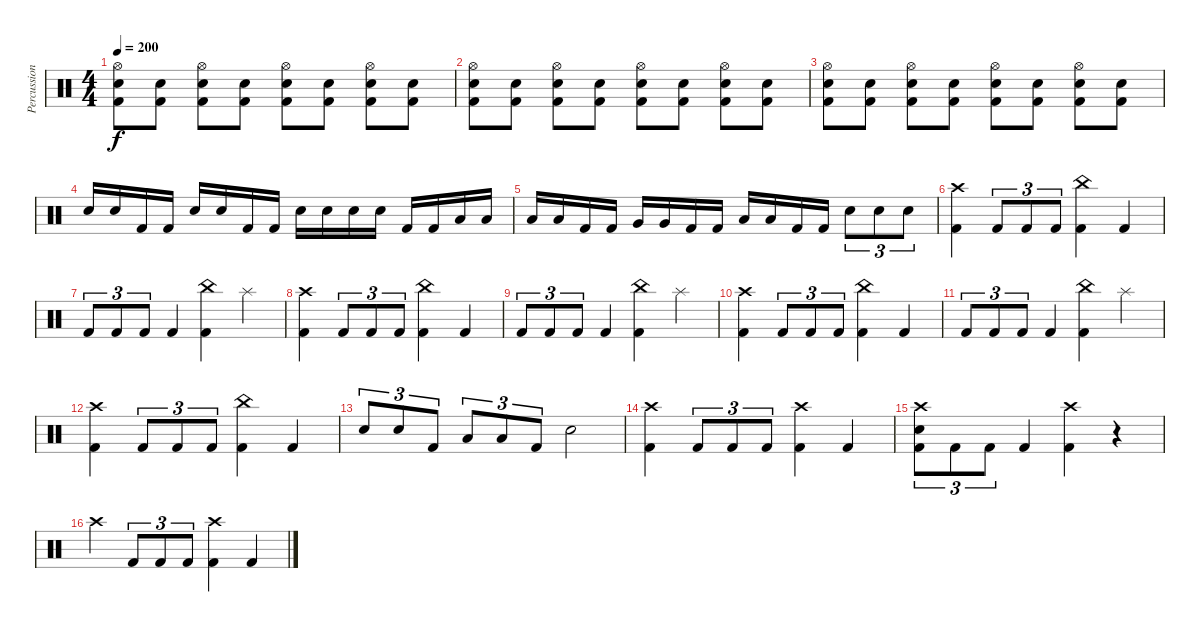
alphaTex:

\track ("Percussion" "Percussion") {instrument percussion}
\staff {score}
\articulation defaults
\ts (4 4)
\tempo 200
\clef neutral
\ks c
("Hi-Hat (open)" "Electric Snare (hit)" "Kick (hit) 2").8{dy f} ("Electric Snare (hit)" "Kick (hit) 2").8 ("Hi-Hat (open)" "Electric Snare (hit)" "Kick (hit) 2").8 ("Electric Snare (hit)" "Kick (hit) 2").8 ("Hi-Hat (open)" "Electric Snare (hit)" "Kick (hit) 2").8 ("Electric Snare (hit)" "Kick (hit) 2").8 ("Hi-Hat (open)" "Electric Snare (hit)" "Kick (hit) 2").8 ("Electric Snare (hit)" "Kick (hit) 2").8 |
("Hi-Hat (open)" "Electric Snare (hit)" "Kick (hit) 2").8 ("Electric Snare (hit)" "Kick (hit) 2").8 ("Hi-Hat (open)" "Electric Snare (hit)" "Kick (hit) 2").8 ("Electric Snare (hit)" "Kick (hit) 2").8 ("Hi-Hat (open)" "Electric Snare (hit)" "Kick (hit) 2").8 ("Electric Snare (hit)" "Kick (hit) 2").8 ("Hi-Hat (open)" "Electric Snare (hit)" "Kick (hit) 2").8 ("Electric Snare (hit)" "Kick (hit) 2").8 |
("Hi-Hat (open)" "Electric Snare (hit)" "Kick (hit) 2").8 ("Electric Snare (hit)" "Kick (hit) 2").8 ("Hi-Hat (open)" "Electric Snare (hit)" "Kick (hit) 2").8 ("Electric Snare (hit)" "Kick (hit) 2").8 ("Hi-Hat (open)" "Electric Snare (hit)" "Kick (hit) 2").8 ("Electric Snare (hit)" "Kick (hit) 2").8 ("Hi-Hat (open)" "Electric Snare (hit)" "Kick (hit) 2").8 ("Electric Snare (hit)" "Kick (hit) 2").8 |
"Electric Snare (hit)".16 "Electric Snare (hit)".16 "Kick (hit) 2".16 "Kick (hit) 2".16 "Electric Snare (hit)".16 "Electric Snare (hit)".16 "Kick (hit) 2".16 "Kick (hit) 2".16 "Electric Snare (hit)".16 "Electric Snare (hit)".16 "Electric Snare (hit)".16 "Electric Snare (hit)".16 "Kick (hit) 2".16 "Kick (hit) 2".16 "Low Tom (hit)".16 "Low Tom (hit)".16 |
"Low Tom (hit)".16 "Low Tom (hit)".16 "Kick (hit) 2".16 "Kick (hit) 2".16 "Very Low Tom (hit)".16 "Very Low Tom (hit)".16 "Kick (hit) 2".16 "Kick (hit) 2".16 "Low Floor Tom (hit)".16 "Low Floor Tom (hit)".16 "Kick (hit) 2".16 "Kick (hit) 2".16 "Electric Snare (hit)".8{tu (3 2)} "Electric Snare (hit)".8{tu (3 2)} "Electric Snare (hit)".8{tu (3 2)} |
("Crash high (hit)" "Kick (hit) 2").4 "Kick (hit) 2".8{tu (3 2)} "Kick (hit) 2".8{tu (3 2)} "Kick (hit) 2".8{tu (3 2)} ("China (hit)" "Kick (hit) 2").4 "Kick (hit) 2".4 |
"Kick (hit) 2".8{tu (3 2)} "Kick (hit) 2".8{tu (3 2)} "Kick (hit) 2".8{tu (3 2)} "Kick (hit) 2".4 ("China (hit)" "Kick (hit) 2").4 "Splash (hit)".4 |
("Crash high (hit)" "Kick (hit) 2").4 "Kick (hit) 2".8{tu (3 2)} "Kick (hit) 2".8{tu (3 2)} "Kick (hit) 2".8{tu (3 2)} ("China (hit)" "Kick (hit) 2").4 "Kick (hit) 2".4 |
"Kick (hit) 2".8{tu (3 2)} "Kick (hit) 2".8{tu (3 2)} "Kick (hit) 2".8{tu (3 2)} "Kick (hit) 2".4 ("China (hit)" "Kick (hit) 2").4 "Splash (hit)".4 |
("Crash high (hit)" "Kick (hit) 2").4 "Kick (hit) 2".8{tu (3 2)} "Kick (hit) 2".8{tu (3 2)} "Kick (hit) 2".8{tu (3 2)} ("China (hit)" "Kick (hit) 2").4 "Kick (hit) 2".4 |
"Kick (hit) 2".8{tu (3 2)} "Kick (hit) 2".8{tu (3 2)} "Kick (hit) 2".8{tu (3 2)} "Kick (hit) 2".4 ("China (hit)" "Kick (hit) 2").4 "Splash (hit)".4 |
("Crash high (hit)" "Kick (hit) 2").4 "Kick (hit) 2".8{tu (3 2)} "Kick (hit) 2".8{tu (3 2)} "Kick (hit) 2".8{tu (3 2)} ("China (hit)" "Kick (hit) 2").4 "Kick (hit) 2".4 |
"Electric Snare (hit)".8{tu (3 2)} "Electric Snare (hit)".8{tu (3 2)} "Kick (hit) 2".8{tu (3 2)} "Low Tom (hit)".8{tu (3 2)} "Low Tom (hit)".8{tu (3 2)} "Kick (hit) 2".8{tu (3 2)} "Electric Snare (hit)".2 |
("Crash high (hit)" "Kick (hit) 2").4 "Kick (hit) 2".8{tu (3 2)} "Kick (hit) 2".8{tu (3 2)} "Kick (hit) 2".8{tu (3 2)} ("Crash high (hit)" "Kick (hit) 2").4 "Kick (hit) 2".4 |
("Crash high (hit)" "Electric Snare (hit)" "Kick (hit) 2").8{tu (3 2)} "Kick (hit) 2".8{tu (3 2)} "Kick (hit) 2".8{tu (3 2)} "Kick (hit) 2".4 ("Crash high (hit)" "Kick (hit) 2").4 r.4 |
"Crash high (hit)".4 "Kick (hit) 2".8{tu (3 2)} "Kick (hit) 2".8{tu (3 2)} "Kick (hit) 2".8{tu (3 2)} ("Crash high (hit)" "Kick (hit) 2").4 "Kick (hit) 2".4
